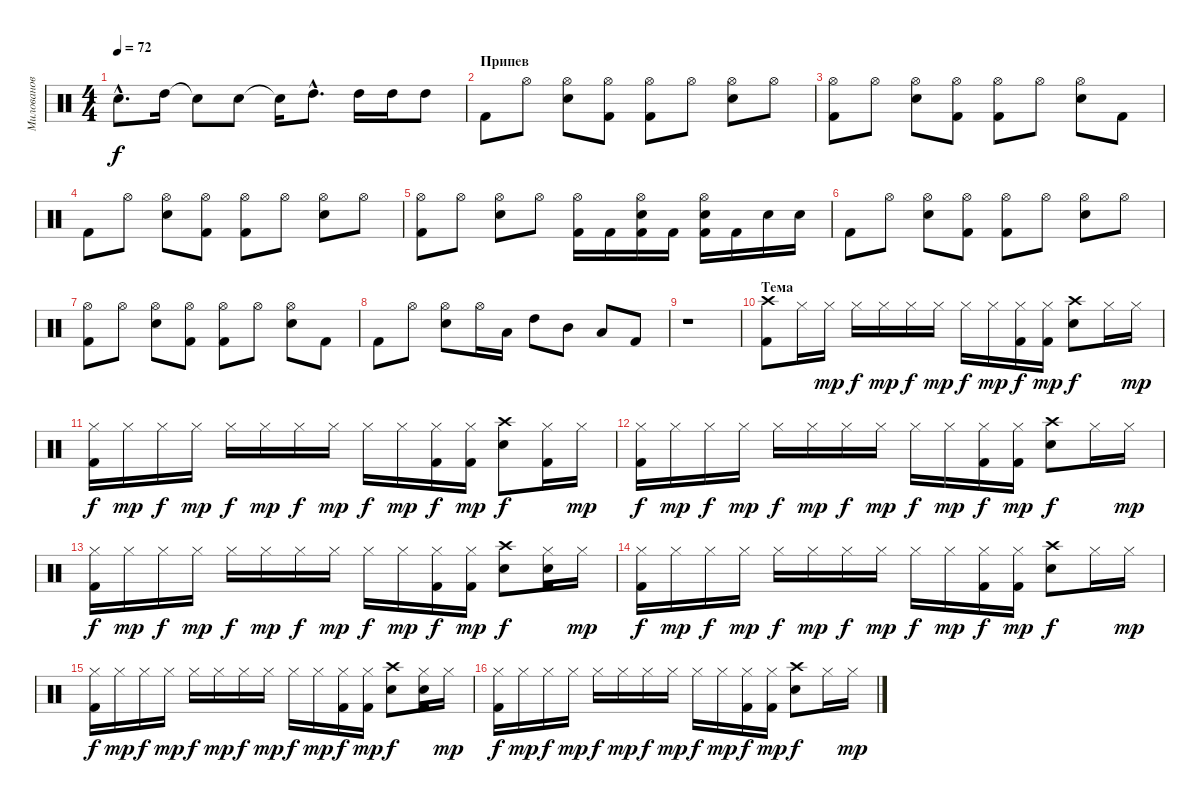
\track ("Милованов" "Милованов") {instrument percussion}
\staff {score}
\articulation defaults
\ts (4 4)
\tempo 72
\clef neutral
\ks c "Electric Snare (hit)"{hac}.8{d dy f} "High Tom (hit)".16 "Snare (hit)"{t}.8 "Electric Snare (hit)".8 "Snare (hit)"{t}.16 "High Tom (hit)"{hac}.8{d} "High Tom (hit)".16 "High Tom (hit)".16 "High Tom (hit)".8
|
\section ("" "Припев")
"Kick (hit) 2".8 "Hi-Hat (open)".8 ("Hi-Hat (open)" "Electric Snare (hit)").8 ("Hi-Hat (open)" "Kick (hit) 2").8 ("Hi-Hat (open)" "Kick (hit) 2").8 "Hi-Hat (open)".8 ("Hi-Hat (open)" "Electric Snare (hit)").8 "Hi-Hat (open)".8 |
("Hi-Hat (open)" "Kick (hit) 2").8 "Hi-Hat (open)".8 ("Hi-Hat (open)" "Electric Snare (hit)").8 ("Hi-Hat (open)" "Kick (hit) 2").8 ("Hi-Hat (open)" "Kick (hit) 2").8 "Hi-Hat (open)".8 ("Hi-Hat (open)" "Electric Snare (hit)").8 "Kick (hit) 2".8 |
"Kick (hit) 2".8 "Hi-Hat (open)".8 ("Hi-Hat (open)" "Electric Snare (hit)").8 ("Hi-Hat (open)" "Kick (hit) 2").8 ("Hi-Hat (open)" "Kick (hit) 2").8 "Hi-Hat (open)".8 ("Hi-Hat (open)" "Electric Snare (hit)").8 "Hi-Hat (open)".8 |
("Hi-Hat (open)" "Kick (hit) 2").8 "Hi-Hat (open)".8 ("Hi-Hat (open)" "Electric Snare (hit)").8 "Hi-Hat (open)".8 ("Hi-Hat (open)" "Kick (hit) 2").16 "Kick (hit) 2".16 ("Hi-Hat (open)" "Electric Snare (hit)" "Kick (hit) 2").16 "Kick (hit) 2".16 ("Hi-Hat (open)" "Electric Snare (hit)" "Kick (hit) 2").16 "Kick (hit) 2".16 "Electric Snare (hit)".16 "Electric Snare (hit)".16 |
"Kick (hit) 2".8 "Hi-Hat (open)".8 ("Hi-Hat (open)" "Electric Snare (hit)").8 ("Hi-Hat (open)" "Kick (hit) 2").8 ("Hi-Hat (open)" "Kick (hit) 2").8 "Hi-Hat (open)".8 ("Hi-Hat (open)" "Electric Snare (hit)").8 "Hi-Hat (open)".8 |
("Hi-Hat (open)" "Kick (hit) 2").8 "Hi-Hat (open)".8 ("Hi-Hat (open)" "Electric Snare (hit)").8 ("Hi-Hat (open)" "Kick (hit) 2").8 ("Hi-Hat (open)" "Kick (hit) 2").8 "Hi-Hat (open)".8 ("Hi-Hat (open)" "Electric Snare (hit)").8 "Kick (hit) 2".8 |
"Kick (hit) 2".8 "Hi-Hat (open)".8 ("Hi-Hat (open)" "Electric Snare (hit)").8 "Hi-Hat (open)".16 "Low Tom (hit)".16 "High Tom (hit)".8 "Mid Tom (hit)".8 "Low Tom (hit)".8 "Kick (hit) 2".8 |
r.1 |
\section ("" "Тема")
("Crash high (hit)" "Kick (hit) 2").8 "Hi-Hat (closed)".16 "Hi-Hat (closed)".16{dy mp} "Hi-Hat (closed)".16{dy f} "Hi-Hat (closed)".16{dy mp} "Hi-Hat (closed)".16{dy f} "Hi-Hat (closed)".16{dy mp} "Hi-Hat (closed)".16{dy f} "Hi-Hat (closed)".16{dy mp} ("Hi-Hat (closed)" "Kick (hit) 2").16{dy f} ("Hi-Hat (closed)" "Kick (hit) 2").16{dy mp} ("Crash high (hit)" "Electric Snare (hit)").8{dy f} "Hi-Hat (closed)".16 "Hi-Hat (closed)".16{dy mp} |
("Hi-Hat (closed)" "Kick (hit) 2").16{dy f} "Hi-Hat (closed)".16{dy mp} "Hi-Hat (closed)".16{dy f} "Hi-Hat (closed)".16{dy mp} "Hi-Hat (closed)".16{dy f} "Hi-Hat (closed)".16{dy mp} "Hi-Hat (closed)".16{dy f} "Hi-Hat (closed)".16{dy mp} "Hi-Hat (closed)".16{dy f} "Hi-Hat (closed)".16{dy mp} ("Hi-Hat (closed)" "Kick (hit) 2").16{dy f} ("Hi-Hat (closed)" "Kick (hit) 2").16{dy mp} ("Crash high (hit)" "Electric Snare (hit)").8{dy f} ("Hi-Hat (closed)" "Kick (hit) 2").16 "Hi-Hat (closed)".16{dy mp} |
("Hi-Hat (closed)" "Kick (hit) 2").16{dy f} "Hi-Hat (closed)".16{dy mp} "Hi-Hat (closed)".16{dy f} "Hi-Hat (closed)".16{dy mp} "Hi-Hat (closed)".16{dy f} "Hi-Hat (closed)".16{dy mp} "Hi-Hat (closed)".16{dy f} "Hi-Hat (closed)".16{dy mp} "Hi-Hat (closed)".16{dy f} "Hi-Hat (closed)".16{dy mp} ("Hi-Hat (closed)" "Kick (hit) 2").16{dy f} ("Hi-Hat (closed)" "Kick (hit) 2").16{dy mp} ("Crash high (hit)" "Electric Snare (hit)").8{dy f} "Hi-Hat (closed)".16 "Hi-Hat (closed)".16{dy mp} |
("Hi-Hat (closed)" "Kick (hit) 2").16{dy f} "Hi-Hat (closed)".16{dy mp} "Hi-Hat (closed)".16{dy f} "Hi-Hat (closed)".16{dy mp} "Hi-Hat (closed)".16{dy f} "Hi-Hat (closed)".16{dy mp} "Hi-Hat (closed)".16{dy f} "Hi-Hat (closed)".16{dy mp} "Hi-Hat (closed)".16{dy f} "Hi-Hat (closed)".16{dy mp} ("Hi-Hat (closed)" "Kick (hit) 2").16{dy f} ("Hi-Hat (closed)" "Kick (hit) 2").16{dy mp} ("Crash high (hit)" "Electric Snare (hit)").8{dy f} ("Hi-Hat (closed)" "Electric Snare (hit)" "Kick (hit) 2").16 "Hi-Hat (closed)".16{dy mp} |
("Hi-Hat (closed)" "Kick (hit) 2").16{dy f} "Hi-Hat (closed)".16{dy mp} "Hi-Hat (closed)".16{dy f} "Hi-Hat (closed)".16{dy mp} "Hi-Hat (closed)".16{dy f} "Hi-Hat (closed)".16{dy mp} "Hi-Hat (closed)".16{dy f} "Hi-Hat (closed)".16{dy mp} "Hi-Hat (closed)".16{dy f} "Hi-Hat (closed)".16{dy mp} ("Hi-Hat (closed)" "Kick (hit) 2").16{dy f} ("Hi-Hat (closed)" "Kick (hit) 2").16{dy mp} ("Crash high (hit)" "Electric Snare (hit)").8{dy f} "Hi-Hat (closed)".16 "Hi-Hat (closed)".16{dy mp} |
("Hi-Hat (closed)" "Kick (hit) 2").16{dy f} "Hi-Hat (closed)".16{dy mp} "Hi-Hat (closed)".16{dy f} "Hi-Hat (closed)".16{dy mp} "Hi-Hat (closed)".16{dy f} "Hi-Hat (closed)".16{dy mp} "Hi-Hat (closed)".16{dy f} "Hi-Hat (closed)".16{dy mp} "Hi-Hat (closed)".16{dy f} "Hi-Hat (closed)".16{dy mp} ("Hi-Hat (closed)" "Kick (hit) 2").16{dy f} ("Hi-Hat (closed)" "Kick (hit) 2").16{dy mp} ("Crash high (hit)" "Electric Snare (hit)").8{dy f} ("Hi-Hat (closed)" "Electric Snare (hit)" "Kick (hit) 2").16 "Hi-Hat (closed)".16{dy mp} |
("Hi-Hat (closed)" "Kick (hit) 2").16{dy f} "Hi-Hat (closed)".16{dy mp} "Hi-Hat (closed)".16{dy f} "Hi-Hat (closed)".16{dy mp} "Hi-Hat (closed)".16{dy f} "Hi-Hat (closed)".16{dy mp} "Hi-Hat (closed)".16{dy f} "Hi-Hat (closed)".16{dy mp} "Hi-Hat (closed)".16{dy f} "Hi-Hat (closed)".16{dy mp} ("Hi-Hat (closed)" "Kick (hit) 2").16{dy f} ("Hi-Hat (closed)" "Kick (hit) 2").16{dy mp} ("Crash high (hit)" "Electric Snare (hit)").8{dy f} "Hi-Hat (closed)".16 "Hi-Hat (closed)".16{dy mp}
